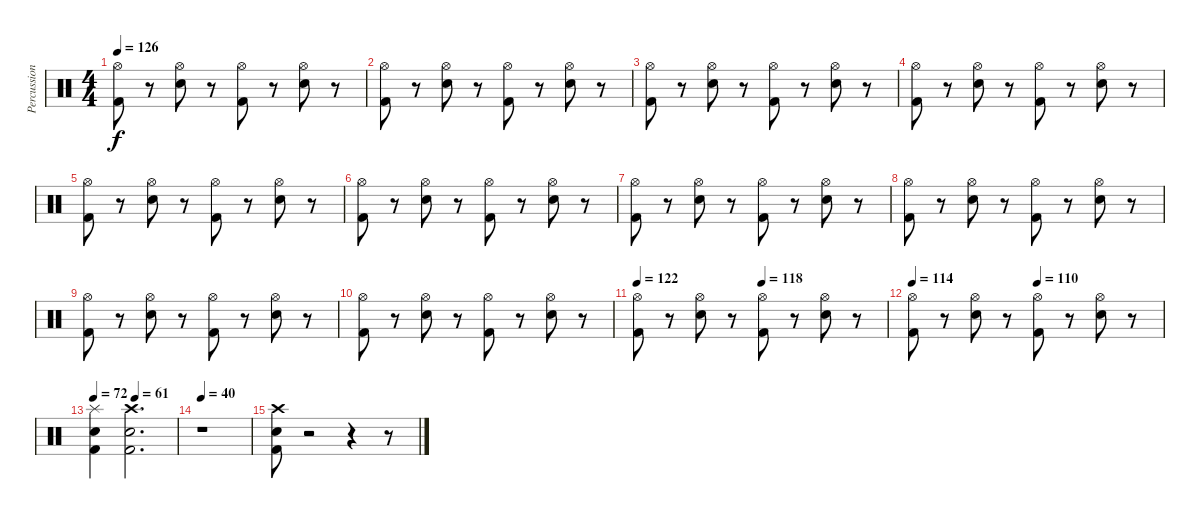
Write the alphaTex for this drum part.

\track ("Percussion" "Percussion") {instrument percussion}
\staff {score}
\articulation defaults
\ts (4 4)
\tempo 126
\clef neutral
\ks c
("Hi-Hat (open)" "Kick (hit) 2").8{dy f} r.8 ("Hi-Hat (open)" "Snare (hit) 2").8 r.8 ("Hi-Hat (open)" "Kick (hit) 2").8 r.8 ("Hi-Hat (open)" "Snare (hit) 2").8 r.8 |
("Hi-Hat (open)" "Kick (hit) 2").8 r.8 ("Hi-Hat (open)" "Snare (hit) 2").8 r.8 ("Hi-Hat (open)" "Kick (hit) 2").8 r.8 ("Hi-Hat (open)" "Snare (hit) 2").8 r.8 |
("Hi-Hat (open)" "Kick (hit) 2").8 r.8 ("Hi-Hat (open)" "Snare (hit) 2").8 r.8 ("Hi-Hat (open)" "Kick (hit) 2").8 r.8 ("Hi-Hat (open)" "Snare (hit) 2").8 r.8 |
("Hi-Hat (open)" "Kick (hit) 2").8 r.8 ("Hi-Hat (open)" "Snare (hit) 2").8 r.8 ("Hi-Hat (open)" "Kick (hit) 2").8 r.8 ("Hi-Hat (open)" "Snare (hit) 2").8 r.8 |
("Hi-Hat (open)" "Kick (hit) 2").8 r.8 ("Hi-Hat (open)" "Snare (hit) 2").8 r.8 ("Hi-Hat (open)" "Kick (hit) 2").8 r.8 ("Hi-Hat (open)" "Snare (hit) 2").8 r.8 |
("Hi-Hat (open)" "Kick (hit) 2").8 r.8 ("Hi-Hat (open)" "Snare (hit) 2").8 r.8 ("Hi-Hat (open)" "Kick (hit) 2").8 r.8 ("Hi-Hat (open)" "Snare (hit) 2").8 r.8 |
("Hi-Hat (open)" "Kick (hit) 2").8 r.8 ("Hi-Hat (open)" "Snare (hit) 2").8 r.8 ("Hi-Hat (open)" "Kick (hit) 2").8 r.8 ("Hi-Hat (open)" "Snare (hit) 2").8 r.8 |
("Hi-Hat (open)" "Kick (hit) 2").8 r.8 ("Hi-Hat (open)" "Snare (hit) 2").8 r.8 ("Hi-Hat (open)" "Kick (hit) 2").8 r.8 ("Hi-Hat (open)" "Snare (hit) 2").8 r.8 |
("Hi-Hat (open)" "Kick (hit) 2").8 r.8 ("Hi-Hat (open)" "Snare (hit) 2").8 r.8 ("Hi-Hat (open)" "Kick (hit) 2").8 r.8 ("Hi-Hat (open)" "Snare (hit) 2").8 r.8 |
("Hi-Hat (open)" "Kick (hit) 2").8 r.8 ("Hi-Hat (open)" "Snare (hit) 2").8 r.8 ("Hi-Hat (open)" "Kick (hit) 2").8 r.8 ("Hi-Hat (open)" "Snare (hit) 2").8 r.8 |
\tempo 122
\tempo (118 0.5)
("Hi-Hat (open)" "Kick (hit) 2").8 r.8 ("Hi-Hat (open)" "Snare (hit) 2").8 r.8 ("Hi-Hat (open)" "Kick (hit) 2").8 r.8 ("Hi-Hat (open)" "Snare (hit) 2").8 r.8 |
\tempo 114
\tempo (110 0.5)
("Hi-Hat (open)" "Kick (hit) 2").8 r.8 ("Hi-Hat (open)" "Snare (hit) 2").8 r.8 ("Hi-Hat (open)" "Kick (hit) 2").8 r.8 ("Hi-Hat (open)" "Snare (hit) 2").8 r.8 |
\tempo 72
\tempo (61 0.5)
("Splash (hit)" "Snare (hit) 2" "Kick (hit) 2").4 ("Crash high (hit)" "Snare (hit) 2" "Kick (hit) 2").2{d} |
\tempo 60
\tempo 40
r.1 |
("Crash high (hit)" "Snare (hit) 2" "Kick (hit) 2").8 r.2 r.4 r.8
